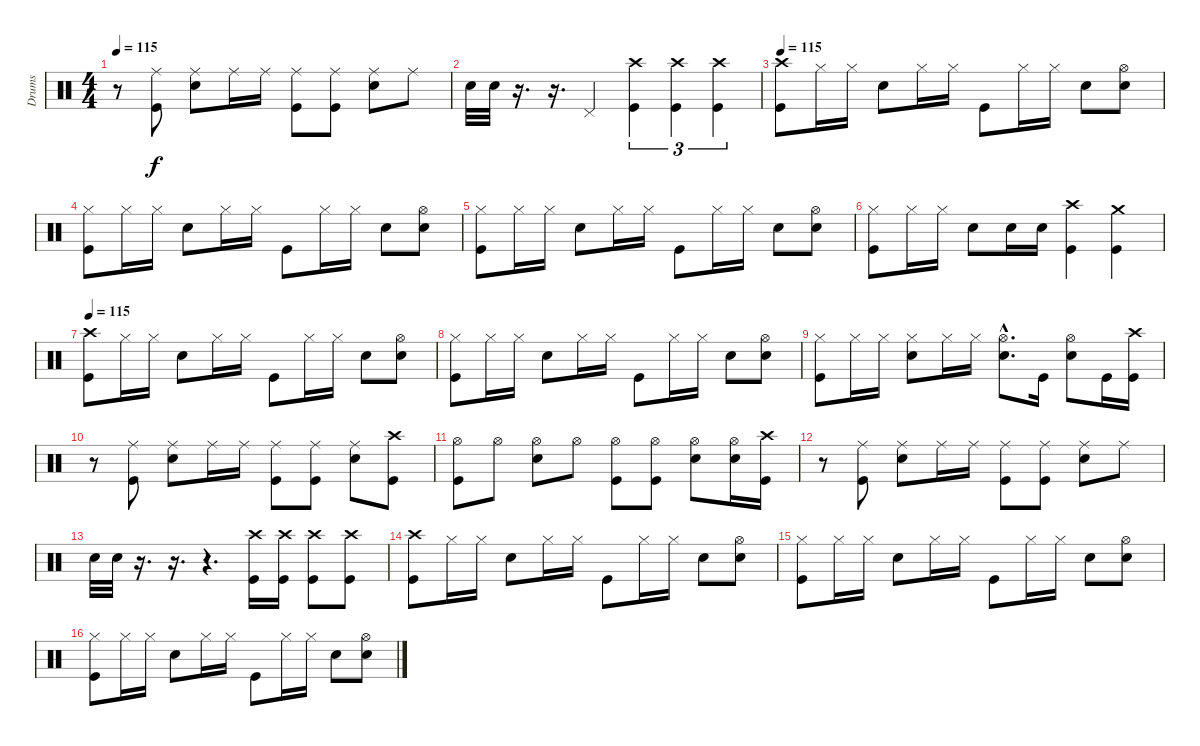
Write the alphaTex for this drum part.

\track ("Drums" "Drums") {instrument percussion}
\staff {score}
\articulation defaults
\ts (4 4)
\tempo 115
\clef neutral
\ks c
r.8{dy f} ("Ride (middle)" "Kick (hit)").8 ("Ride (middle)" "Snare (hit) 2").8 "Ride (middle)".16 "Ride (middle)".16 ("Ride (middle)" "Kick (hit)").8 ("Ride (middle)" "Kick (hit)").8 ("Ride (middle)" "Snare (hit) 2").8 "Ride (middle)".8 |
"Snare (hit) 2".32 "Snare (hit) 2".32 r.16{d} r.16{d} "Pedal Hi-Hat (hit)".4 ("Crash high (hit)" "Kick (hit)").4{tu (3 2)} ("Crash high (hit)" "Kick (hit)").4{tu (3 2)} ("Crash high (hit)" "Kick (hit)").4{tu (3 2)} |
\tempo 115
("Crash high (hit)" "Kick (hit)").8 "Hi-Hat (closed)".16 "Hi-Hat (closed)".16 "Snare (hit) 2".8 "Hi-Hat (closed)".16 "Hi-Hat (closed)".16 "Kick (hit)".8 "Hi-Hat (closed)".16 "Hi-Hat (closed)".16 "Snare (hit) 2".8 ("Hi-Hat (open)" "Snare (hit) 2").8 |
("Hi-Hat (closed)" "Kick (hit)").8 "Hi-Hat (closed)".16 "Hi-Hat (closed)".16 "Snare (hit) 2".8 "Hi-Hat (closed)".16 "Hi-Hat (closed)".16 "Kick (hit)".8 "Hi-Hat (closed)".16 "Hi-Hat (closed)".16 "Snare (hit) 2".8 ("Hi-Hat (open)" "Snare (hit) 2").8 |
("Hi-Hat (closed)" "Kick (hit)").8 "Hi-Hat (closed)".16 "Hi-Hat (closed)".16 "Snare (hit) 2".8 "Hi-Hat (closed)".16 "Hi-Hat (closed)".16 "Kick (hit)".8 "Hi-Hat (closed)".16 "Hi-Hat (closed)".16 "Snare (hit) 2".8 ("Hi-Hat (open)" "Snare (hit) 2").8 |
("Hi-Hat (closed)" "Kick (hit)").8 "Hi-Hat (closed)".16 "Hi-Hat (closed)".16 "Snare (hit) 2".8 "Snare (hit) 2".16 "Snare (hit) 2".16 ("Crash high (hit)" "Kick (hit)").4 ("Crash medium (hit)" "Kick (hit)").4 |
\tempo 115
("Crash high (hit)" "Kick (hit)").8 "Hi-Hat (closed)".16 "Hi-Hat (closed)".16 "Snare (hit) 2".8 "Hi-Hat (closed)".16 "Hi-Hat (closed)".16 "Kick (hit)".8 "Hi-Hat (closed)".16 "Hi-Hat (closed)".16 "Snare (hit) 2".8 ("Hi-Hat (open)" "Snare (hit) 2").8 |
("Hi-Hat (closed)" "Kick (hit)").8 "Hi-Hat (closed)".16 "Hi-Hat (closed)".16 "Snare (hit) 2".8 "Hi-Hat (closed)".16 "Hi-Hat (closed)".16 "Kick (hit)".8 "Hi-Hat (closed)".16 "Hi-Hat (closed)".16 "Snare (hit) 2".8 ("Hi-Hat (open)" "Snare (hit) 2").8 |
("Hi-Hat (closed)" "Kick (hit)").8 "Hi-Hat (closed)".16 "Hi-Hat (closed)".16 ("Hi-Hat (closed)" "Snare (hit) 2").8 "Hi-Hat (closed)".16 "Hi-Hat (closed)".16 ("Hi-Hat (open)"{hac} "Snare (hit) 2"{hac}).8{d} "Kick (hit)".16 ("Hi-Hat (open)" "Snare (hit) 2").8 "Kick (hit)".16 ("Crash high (hit)" "Kick (hit)").16 |
r.8 ("Ride (middle)" "Kick (hit)").8 ("Ride (middle)" "Snare (hit) 2").8 "Ride (middle)".16 "Ride (middle)".16 ("Ride (middle)" "Kick (hit)").8 ("Ride (middle)" "Kick (hit)").8 ("Ride (middle)" "Snare (hit) 2").8 ("Crash high (hit)" "Kick (hit)").8 |
("Hi-Hat (open)" "Kick (hit)").8 "Hi-Hat (open)".8 ("Hi-Hat (open)" "Snare (hit) 2").8 "Hi-Hat (open)".8 ("Hi-Hat (open)" "Kick (hit)").8 ("Hi-Hat (open)" "Kick (hit)").8 ("Hi-Hat (open)" "Snare (hit) 2").8 ("Hi-Hat (open)" "Snare (hit) 2").16 ("Crash high (hit)" "Kick (hit)").16 |
r.8 ("Ride (middle)" "Kick (hit)").8 ("Ride (middle)" "Snare (hit) 2").8 "Ride (middle)".16 "Ride (middle)".16 ("Ride (middle)" "Kick (hit)").8 ("Ride (middle)" "Kick (hit)").8 ("Ride (middle)" "Snare (hit) 2").8 "Ride (middle)".8 |
"Snare (hit) 2".32 "Snare (hit) 2".32 r.16{d} r.16{d} r.4{d} ("Crash high (hit)" "Kick (hit)").16 ("Crash high (hit)" "Kick (hit)").16 ("Crash high (hit)" "Kick (hit)").8 ("Crash high (hit)" "Kick (hit)").8 |
("Crash high (hit)" "Kick (hit)").8 "Hi-Hat (closed)".16 "Hi-Hat (closed)".16 "Snare (hit) 2".8 "Hi-Hat (closed)".16 "Hi-Hat (closed)".16 "Kick (hit)".8 "Hi-Hat (closed)".16 "Hi-Hat (closed)".16 "Snare (hit) 2".8 ("Hi-Hat (open)" "Snare (hit) 2").8 |
("Hi-Hat (closed)" "Kick (hit)").8 "Hi-Hat (closed)".16 "Hi-Hat (closed)".16 "Snare (hit) 2".8 "Hi-Hat (closed)".16 "Hi-Hat (closed)".16 "Kick (hit)".8 "Hi-Hat (closed)".16 "Hi-Hat (closed)".16 "Snare (hit) 2".8 ("Hi-Hat (open)" "Snare (hit) 2").8 |
("Hi-Hat (closed)" "Kick (hit)").8 "Hi-Hat (closed)".16 "Hi-Hat (closed)".16 "Snare (hit) 2".8 "Hi-Hat (closed)".16 "Hi-Hat (closed)".16 "Kick (hit)".8 "Hi-Hat (closed)".16 "Hi-Hat (closed)".16 "Snare (hit) 2".8 ("Hi-Hat (open)" "Snare (hit) 2").8
